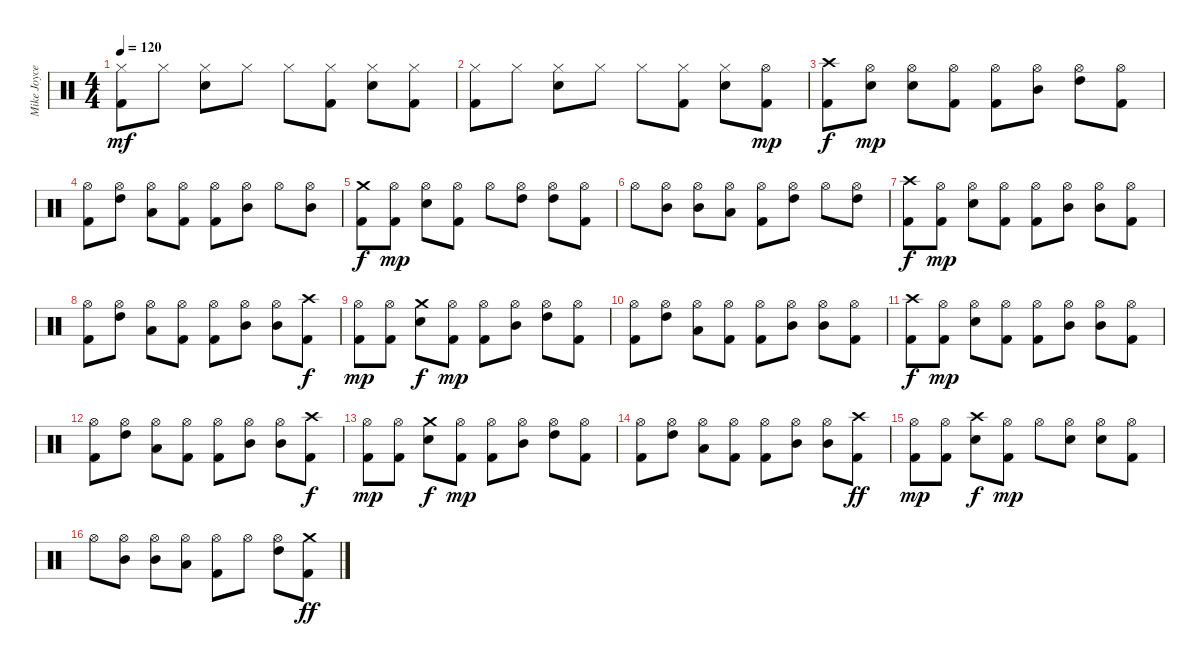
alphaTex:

\track ("Mike Joyce" "Mike Joyce") {instrument percussion}
\staff {score}
\articulation defaults
\ts (4 4)
\tempo 120
\clef neutral
\ks c
("Hi-Hat (closed)" "Kick (hit) 2").8{dy mf} "Hi-Hat (closed)".8 ("Hi-Hat (closed)" "Electric Snare (hit)").8 "Hi-Hat (closed)".8 "Hi-Hat (closed)".8 ("Hi-Hat (closed)" "Kick (hit) 2").8 ("Hi-Hat (closed)" "Electric Snare (hit)").8 ("Hi-Hat (closed)" "Kick (hit) 2").8 |
("Hi-Hat (closed)" "Kick (hit) 2").8 "Hi-Hat (closed)".8 ("Hi-Hat (closed)" "Electric Snare (hit)").8 "Hi-Hat (closed)".8 "Hi-Hat (closed)".8 ("Hi-Hat (closed)" "Kick (hit) 2").8 ("Hi-Hat (closed)" "Electric Snare (hit)").8 ("Hi-Hat (open)" "Kick (hit) 2").8{dy mp} |
("Crash high (hit)" "Kick (hit) 2").8{dy f} ("Hi-Hat (open)" "Electric Snare (hit)").8{dy mp} ("Hi-Hat (open)" "Electric Snare (hit)").8 ("Hi-Hat (open)" "Kick (hit) 2").8 ("Hi-Hat (open)" "Kick (hit) 2").8 ("Hi-Hat (open)" "Mid Tom (hit)").8 ("Hi-Hat (open)" "High Tom (hit)").8 ("Hi-Hat (open)" "Kick (hit) 2").8 |
("Hi-Hat (open)" "Kick (hit) 2").8 ("Hi-Hat (open)" "High Tom (hit)").8 ("Hi-Hat (open)" "Low Floor Tom (hit)").8 ("Hi-Hat (open)" "Kick (hit) 2").8 ("Hi-Hat (open)" "Kick (hit) 2").8 ("Hi-Hat (open)" "Mid Tom (hit)").8 "Hi-Hat (open)".8 ("Hi-Hat (open)" "Mid Tom (hit)").8 |
("Crash medium (hit)" "Kick (hit) 2").8{dy f} ("Hi-Hat (open)" "Kick (hit) 2").8{dy mp} ("Hi-Hat (open)" "Electric Snare (hit)").8 ("Hi-Hat (open)" "Kick (hit) 2").8 "Hi-Hat (open)".8 ("Hi-Hat (open)" "High Tom (hit)").8 ("Hi-Hat (open)" "High Tom (hit)").8 ("Hi-Hat (open)" "Kick (hit) 2").8 |
"Hi-Hat (open)".8 ("Hi-Hat (open)" "Mid Tom (hit)").8 ("Hi-Hat (open)" "Mid Tom (hit)").8 ("Hi-Hat (open)" "Low Floor Tom (hit)").8 ("Hi-Hat (open)" "Kick (hit) 2").8 ("Hi-Hat (open)" "High Tom (hit)").8 "Hi-Hat (open)".8 ("Hi-Hat (open)" "High Tom (hit)").8 |
("Crash high (hit)" "Kick (hit) 2").8{dy f} ("Hi-Hat (open)" "Kick (hit) 2").8{dy mp} ("Hi-Hat (open)" "Electric Snare (hit)").8 ("Hi-Hat (open)" "Kick (hit) 2").8 ("Hi-Hat (open)" "Kick (hit) 2").8 ("Hi-Hat (open)" "Mid Tom (hit)").8 ("Hi-Hat (open)" "Mid Tom (hit)").8 ("Hi-Hat (open)" "Kick (hit) 2").8 |
("Hi-Hat (open)" "Kick (hit) 2").8 ("Hi-Hat (open)" "High Tom (hit)").8 ("Hi-Hat (open)" "Low Floor Tom (hit)").8 ("Hi-Hat (open)" "Kick (hit) 2").8 ("Hi-Hat (open)" "Kick (hit) 2").8 ("Hi-Hat (open)" "Mid Tom (hit)").8 ("Hi-Hat (open)" "Mid Tom (hit)").8 ("Crash high (hit)" "Kick (hit) 2").8{dy f} |
("Hi-Hat (open)" "Kick (hit) 2").8{dy mp} ("Hi-Hat (open)" "Kick (hit) 2").8 ("Crash medium (hit)" "Electric Snare (hit)").8{dy f} ("Hi-Hat (open)" "Kick (hit) 2").8{dy mp} ("Hi-Hat (open)" "Kick (hit) 2").8 ("Hi-Hat (open)" "Mid Tom (hit)").8 ("Hi-Hat (open)" "High Tom (hit)").8 ("Hi-Hat (open)" "Kick (hit) 2").8 |
("Hi-Hat (open)" "Kick (hit) 2").8 ("Hi-Hat (open)" "High Tom (hit)").8 ("Hi-Hat (open)" "Low Floor Tom (hit)").8 ("Hi-Hat (open)" "Kick (hit) 2").8 ("Hi-Hat (open)" "Kick (hit) 2").8 ("Hi-Hat (open)" "Mid Tom (hit)").8 ("Hi-Hat (open)" "Mid Tom (hit)").8 ("Hi-Hat (open)" "Kick (hit) 2").8 |
("Crash high (hit)" "Kick (hit) 2").8{dy f} ("Hi-Hat (open)" "Kick (hit) 2").8{dy mp} ("Hi-Hat (open)" "Electric Snare (hit)").8 ("Hi-Hat (open)" "Kick (hit) 2").8 ("Hi-Hat (open)" "Kick (hit) 2").8 ("Hi-Hat (open)" "Mid Tom (hit)").8 ("Hi-Hat (open)" "Mid Tom (hit)").8 ("Hi-Hat (open)" "Kick (hit) 2").8 |
("Hi-Hat (open)" "Kick (hit) 2").8 ("Hi-Hat (open)" "High Tom (hit)").8 ("Hi-Hat (open)" "Low Floor Tom (hit)").8 ("Hi-Hat (open)" "Kick (hit) 2").8 ("Hi-Hat (open)" "Kick (hit) 2").8 ("Hi-Hat (open)" "Mid Tom (hit)").8 ("Hi-Hat (open)" "Mid Tom (hit)").8 ("Crash high (hit)" "Kick (hit) 2").8{dy f} |
("Hi-Hat (open)" "Kick (hit) 2").8{dy mp} ("Hi-Hat (open)" "Kick (hit) 2").8 ("Crash medium (hit)" "Electric Snare (hit)").8{dy f} ("Hi-Hat (open)" "Kick (hit) 2").8{dy mp} ("Hi-Hat (open)" "Kick (hit) 2").8 ("Hi-Hat (open)" "Mid Tom (hit)").8 ("Hi-Hat (open)" "High Tom (hit)").8 ("Hi-Hat (open)" "Kick (hit) 2").8 |
("Hi-Hat (open)" "Kick (hit) 2").8 ("Hi-Hat (open)" "High Tom (hit)").8 ("Hi-Hat (open)" "Low Floor Tom (hit)").8 ("Hi-Hat (open)" "Kick (hit) 2").8 ("Hi-Hat (open)" "Kick (hit) 2").8 ("Hi-Hat (open)" "Mid Tom (hit)").8 ("Hi-Hat (open)" "Mid Tom (hit)").8 ("Crash high (hit)" "Kick (hit) 2").8{dy ff} |
("Hi-Hat (open)" "Kick (hit) 2").8{dy mp} ("Hi-Hat (open)" "Kick (hit) 2").8 ("Crash high (hit)" "Electric Snare (hit)").8{dy f} ("Hi-Hat (open)" "Kick (hit) 2").8{dy mp} "Hi-Hat (open)".8 ("Hi-Hat (open)" "Electric Snare (hit)").8 ("Hi-Hat (open)" "Electric Snare (hit)").8 ("Hi-Hat (open)" "Kick (hit) 2").8 |
"Hi-Hat (open)".8 ("Hi-Hat (open)" "Mid Tom (hit)").8 ("Hi-Hat (open)" "Mid Tom (hit)").8 ("Hi-Hat (open)" "Low Floor Tom (hit)").8 ("Hi-Hat (open)" "Kick (hit) 2").8 "Hi-Hat (open)".8 ("Hi-Hat (open)" "High Tom (hit)").8 ("Crash medium (hit)" "Kick (hit) 2").8{dy ff}
